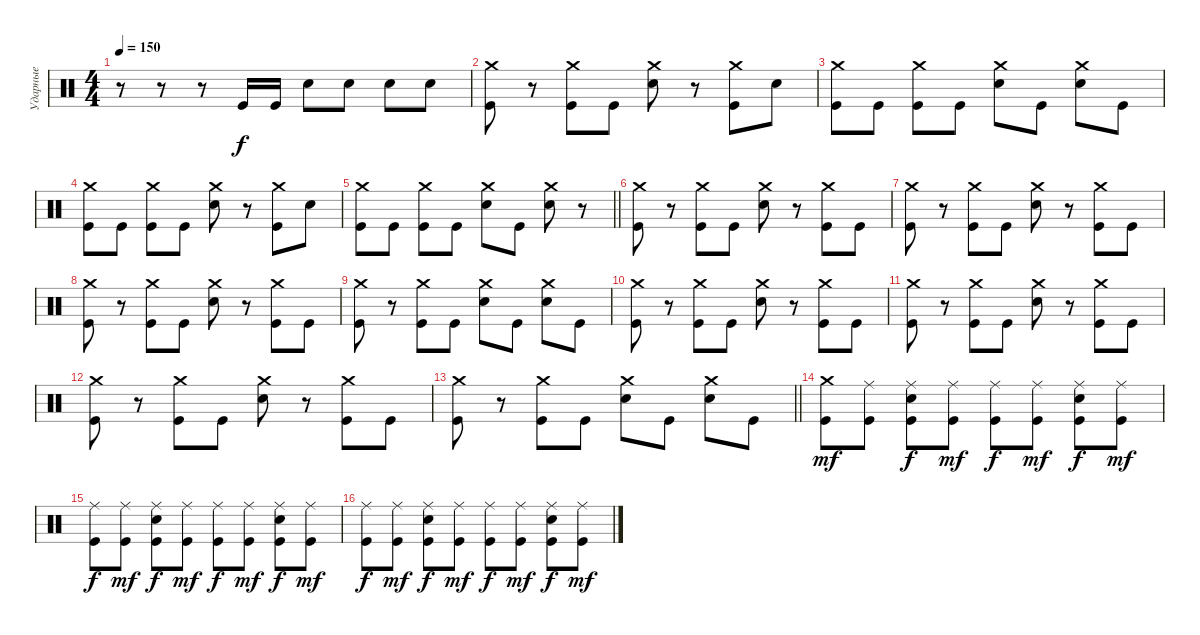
\track ("Ударные" "Ударные") {instrument percussion}
\staff {score}
\articulation defaults
\ts (4 4)
\tempo 150
\clef neutral
\ks c
r.8{dy f} r.8 r.8 "Kick (hit)".16 "Kick (hit)".16 "Electric Snare (hit)".8 "Electric Snare (hit)".8 "Electric Snare (hit)".8 "Electric Snare (hit)".8 |
("Crash medium (hit)" "Kick (hit)").8 r.8 ("Crash medium (hit)" "Kick (hit)").8 "Kick (hit)".8 ("Crash medium (hit)" "Electric Snare (hit)").8 r.8 ("Crash medium (hit)" "Kick (hit)").8 "Electric Snare (hit)".8 |
("Crash medium (hit)" "Kick (hit)").8 "Kick (hit)".8 ("Crash medium (hit)" "Kick (hit)").8 "Kick (hit)".8 ("Crash medium (hit)" "Electric Snare (hit)").8 "Kick (hit)".8 ("Crash medium (hit)" "Electric Snare (hit)").8 "Kick (hit)".8 |
("Crash medium (hit)" "Kick (hit)").8 "Kick (hit)".8 ("Crash medium (hit)" "Kick (hit)").8 "Kick (hit)".8 ("Crash medium (hit)" "Electric Snare (hit)").8 r.8 ("Crash medium (hit)" "Kick (hit)").8 "Electric Snare (hit)".8 |
\barLineRight lightlight
("Crash medium (hit)" "Kick (hit)").8 "Kick (hit)".8 ("Crash medium (hit)" "Kick (hit)").8 "Kick (hit)".8 ("Crash medium (hit)" "Electric Snare (hit)").8 "Kick (hit)".8 ("Crash medium (hit)" "Electric Snare (hit)").8 r.8 |
("Crash medium (hit)" "Kick (hit)").8 r.8 ("Crash medium (hit)" "Kick (hit)").8 "Kick (hit)".8 ("Crash medium (hit)" "Electric Snare (hit)").8 r.8 ("Crash medium (hit)" "Kick (hit)").8 "Kick (hit)".8 |
("Crash medium (hit)" "Kick (hit)").8 r.8 ("Crash medium (hit)" "Kick (hit)").8 "Kick (hit)".8 ("Crash medium (hit)" "Electric Snare (hit)").8 r.8 ("Crash medium (hit)" "Kick (hit)").8 "Kick (hit)".8 |
("Crash medium (hit)" "Kick (hit)").8 r.8 ("Crash medium (hit)" "Kick (hit)").8 "Kick (hit)".8 ("Crash medium (hit)" "Electric Snare (hit)").8 r.8 ("Crash medium (hit)" "Kick (hit)").8 "Kick (hit)".8 |
("Crash medium (hit)" "Kick (hit)").8 r.8 ("Crash medium (hit)" "Kick (hit)").8 "Kick (hit)".8 ("Crash medium (hit)" "Electric Snare (hit)").8 "Kick (hit)".8 ("Crash medium (hit)" "Electric Snare (hit)").8 "Kick (hit)".8 |
("Crash medium (hit)" "Kick (hit)").8 r.8 ("Crash medium (hit)" "Kick (hit)").8 "Kick (hit)".8 ("Crash medium (hit)" "Electric Snare (hit)").8 r.8 ("Crash medium (hit)" "Kick (hit)").8 "Kick (hit)".8 |
("Crash medium (hit)" "Kick (hit)").8 r.8 ("Crash medium (hit)" "Kick (hit)").8 "Kick (hit)".8 ("Crash medium (hit)" "Electric Snare (hit)").8 r.8 ("Crash medium (hit)" "Kick (hit)").8 "Kick (hit)".8 |
("Crash medium (hit)" "Kick (hit)").8 r.8 ("Crash medium (hit)" "Kick (hit)").8 "Kick (hit)".8 ("Crash medium (hit)" "Electric Snare (hit)").8 r.8 ("Crash medium (hit)" "Kick (hit)").8 "Kick (hit)".8 |
\barLineRight lightlight
("Crash medium (hit)" "Kick (hit)").8 r.8 ("Crash medium (hit)" "Kick (hit)").8 "Kick (hit)".8 ("Crash medium (hit)" "Electric Snare (hit)").8 "Kick (hit)".8 ("Crash medium (hit)" "Electric Snare (hit)").8 "Kick (hit)".8 |
("Kick (hit)" "Crash medium (hit)").8{dy mf} ("Kick (hit)" "Ride (middle)").8 ("Electric Snare (hit)" "Kick (hit)" "Ride (middle)").8{dy f} ("Kick (hit)" "Ride (middle)").8{dy mf} ("Kick (hit)" "Ride (middle)").8{dy f} ("Kick (hit)" "Ride (middle)").8{dy mf} ("Electric Snare (hit)" "Kick (hit)" "Ride (middle)").8{dy f} ("Kick (hit)" "Ride (middle)").8{dy mf} |
("Kick (hit)" "Ride (middle)").8{dy f} ("Kick (hit)" "Ride (middle)").8{dy mf} ("Electric Snare (hit)" "Kick (hit)" "Ride (middle)").8{dy f} ("Kick (hit)" "Ride (middle)").8{dy mf} ("Kick (hit)" "Ride (middle)").8{dy f} ("Kick (hit)" "Ride (middle)").8{dy mf} ("Electric Snare (hit)" "Kick (hit)" "Ride (middle)").8{dy f} ("Kick (hit)" "Ride (middle)").8{dy mf} |
("Kick (hit)" "Ride (middle)").8{dy f} ("Kick (hit)" "Ride (middle)").8{dy mf} ("Electric Snare (hit)" "Kick (hit)" "Ride (middle)").8{dy f} ("Kick (hit)" "Ride (middle)").8{dy mf} ("Kick (hit)" "Ride (middle)").8{dy f} ("Kick (hit)" "Ride (middle)").8{dy mf} ("Electric Snare (hit)" "Kick (hit)" "Ride (middle)").8{dy f} ("Kick (hit)" "Ride (middle)").8{dy mf}
